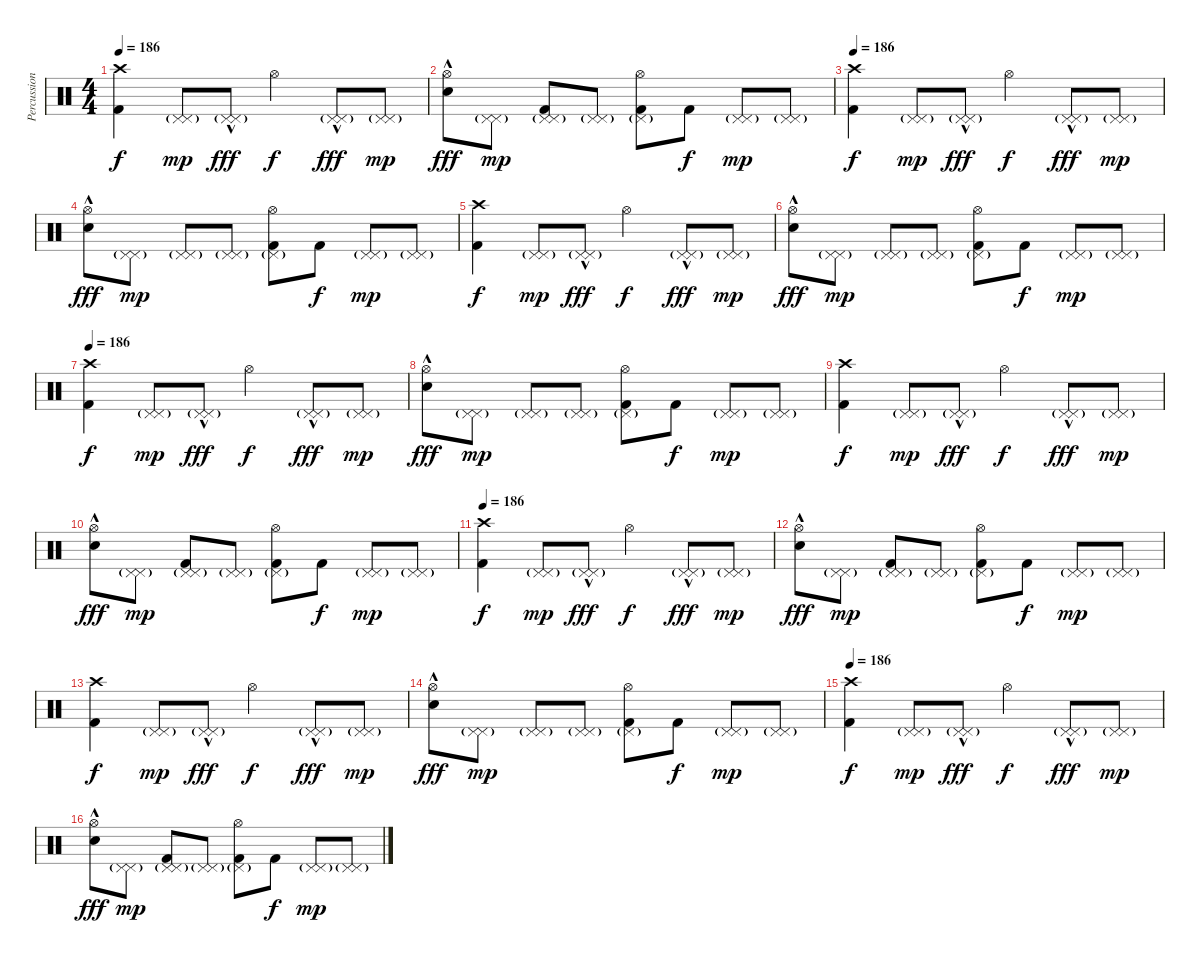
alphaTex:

\track ("Percussion" "Percussion") {instrument percussion}
\staff {score}
\articulation defaults
\ts (4 4)
\tempo 186
\clef neutral
\ks c
("Crash high (hit)" "Kick (hit) 2").4{dy f} ("Pedal Hi-Hat (hit)"{g} "Pedal Hi-Hat (hit)").8{dy mp} ("Pedal Hi-Hat (hit)"{g} "Pedal Hi-Hat (hit)"{hac}).8{dy fff} "Hi-Hat (open)".4{dy f} ("Pedal Hi-Hat (hit)"{g} "Pedal Hi-Hat (hit)"{hac}).8{dy fff} ("Pedal Hi-Hat (hit)"{g} "Pedal Hi-Hat (hit)").8{dy mp} |
("Hi-Hat (open)" "Electric Snare (hit)"{hac}).8{dy fff} ("Pedal Hi-Hat (hit)"{g} "Pedal Hi-Hat (hit)").8{dy mp} ("Pedal Hi-Hat (hit)"{g} "Pedal Hi-Hat (hit)" "Kick (hit) 2").8 ("Pedal Hi-Hat (hit)"{g} "Pedal Hi-Hat (hit)").8 ("Pedal Hi-Hat (hit)"{g} "Hi-Hat (open)" "Kick (hit) 2").8 "Kick (hit) 2".8{dy f} ("Pedal Hi-Hat (hit)"{g} "Pedal Hi-Hat (hit)").8{dy mp} ("Pedal Hi-Hat (hit)"{g} "Pedal Hi-Hat (hit)").8 |
\tempo 186
("Crash high (hit)" "Kick (hit) 2").4{dy f} ("Pedal Hi-Hat (hit)"{g} "Pedal Hi-Hat (hit)").8{dy mp} ("Pedal Hi-Hat (hit)"{g} "Pedal Hi-Hat (hit)"{hac}).8{dy fff} "Hi-Hat (open)".4{dy f} ("Pedal Hi-Hat (hit)"{g} "Pedal Hi-Hat (hit)"{hac}).8{dy fff} ("Pedal Hi-Hat (hit)"{g} "Pedal Hi-Hat (hit)").8{dy mp} |
("Hi-Hat (open)" "Electric Snare (hit)"{hac}).8{dy fff} ("Pedal Hi-Hat (hit)"{g} "Pedal Hi-Hat (hit)").8{dy mp} ("Pedal Hi-Hat (hit)"{g} "Pedal Hi-Hat (hit)").8 ("Pedal Hi-Hat (hit)"{g} "Pedal Hi-Hat (hit)").8 ("Pedal Hi-Hat (hit)"{g} "Hi-Hat (open)" "Kick (hit) 2").8 "Kick (hit) 2".8{dy f} ("Pedal Hi-Hat (hit)"{g} "Pedal Hi-Hat (hit)").8{dy mp} ("Pedal Hi-Hat (hit)"{g} "Pedal Hi-Hat (hit)").8 |
("Crash high (hit)" "Kick (hit) 2").4{dy f} ("Pedal Hi-Hat (hit)"{g} "Pedal Hi-Hat (hit)").8{dy mp} ("Pedal Hi-Hat (hit)"{g} "Pedal Hi-Hat (hit)"{hac}).8{dy fff} "Hi-Hat (open)".4{dy f} ("Pedal Hi-Hat (hit)"{g} "Pedal Hi-Hat (hit)"{hac}).8{dy fff} ("Pedal Hi-Hat (hit)"{g} "Pedal Hi-Hat (hit)").8{dy mp} |
("Hi-Hat (open)" "Electric Snare (hit)"{hac}).8{dy fff} ("Pedal Hi-Hat (hit)"{g} "Pedal Hi-Hat (hit)").8{dy mp} ("Pedal Hi-Hat (hit)"{g} "Pedal Hi-Hat (hit)").8 ("Pedal Hi-Hat (hit)"{g} "Pedal Hi-Hat (hit)").8 ("Pedal Hi-Hat (hit)"{g} "Hi-Hat (open)" "Kick (hit) 2").8 "Kick (hit) 2".8{dy f} ("Pedal Hi-Hat (hit)"{g} "Pedal Hi-Hat (hit)").8{dy mp} ("Pedal Hi-Hat (hit)"{g} "Pedal Hi-Hat (hit)").8 |
\tempo 186
("Crash high (hit)" "Kick (hit) 2").4{dy f} ("Pedal Hi-Hat (hit)"{g} "Pedal Hi-Hat (hit)").8{dy mp} ("Pedal Hi-Hat (hit)"{g} "Pedal Hi-Hat (hit)"{hac}).8{dy fff} "Hi-Hat (open)".4{dy f} ("Pedal Hi-Hat (hit)"{g} "Pedal Hi-Hat (hit)"{hac}).8{dy fff} ("Pedal Hi-Hat (hit)"{g} "Pedal Hi-Hat (hit)").8{dy mp} |
("Hi-Hat (open)" "Electric Snare (hit)"{hac}).8{dy fff} ("Pedal Hi-Hat (hit)"{g} "Pedal Hi-Hat (hit)").8{dy mp} ("Pedal Hi-Hat (hit)"{g} "Pedal Hi-Hat (hit)").8 ("Pedal Hi-Hat (hit)"{g} "Pedal Hi-Hat (hit)").8 ("Pedal Hi-Hat (hit)"{g} "Hi-Hat (open)" "Kick (hit) 2").8 "Kick (hit) 2".8{dy f} ("Pedal Hi-Hat (hit)"{g} "Pedal Hi-Hat (hit)").8{dy mp} ("Pedal Hi-Hat (hit)"{g} "Pedal Hi-Hat (hit)").8 |
("Crash high (hit)" "Kick (hit) 2").4{dy f} ("Pedal Hi-Hat (hit)"{g} "Pedal Hi-Hat (hit)").8{dy mp} ("Pedal Hi-Hat (hit)"{g} "Pedal Hi-Hat (hit)"{hac}).8{dy fff} "Hi-Hat (open)".4{dy f} ("Pedal Hi-Hat (hit)"{g} "Pedal Hi-Hat (hit)"{hac}).8{dy fff} ("Pedal Hi-Hat (hit)"{g} "Pedal Hi-Hat (hit)").8{dy mp} |
("Hi-Hat (open)" "Electric Snare (hit)"{hac}).8{dy fff} ("Pedal Hi-Hat (hit)"{g} "Pedal Hi-Hat (hit)").8{dy mp} ("Pedal Hi-Hat (hit)"{g} "Pedal Hi-Hat (hit)" "Kick (hit) 2").8 ("Pedal Hi-Hat (hit)"{g} "Pedal Hi-Hat (hit)").8 ("Pedal Hi-Hat (hit)"{g} "Hi-Hat (open)" "Kick (hit) 2").8 "Kick (hit) 2".8{dy f} ("Pedal Hi-Hat (hit)"{g} "Pedal Hi-Hat (hit)").8{dy mp} ("Pedal Hi-Hat (hit)"{g} "Pedal Hi-Hat (hit)").8 |
\tempo 186
("Crash high (hit)" "Kick (hit) 2").4{dy f} ("Pedal Hi-Hat (hit)"{g} "Pedal Hi-Hat (hit)").8{dy mp} ("Pedal Hi-Hat (hit)"{g} "Pedal Hi-Hat (hit)"{hac}).8{dy fff} "Hi-Hat (open)".4{dy f} ("Pedal Hi-Hat (hit)"{g} "Pedal Hi-Hat (hit)"{hac}).8{dy fff} ("Pedal Hi-Hat (hit)"{g} "Pedal Hi-Hat (hit)").8{dy mp} |
("Hi-Hat (open)" "Electric Snare (hit)"{hac}).8{dy fff} ("Pedal Hi-Hat (hit)"{g} "Pedal Hi-Hat (hit)").8{dy mp} ("Pedal Hi-Hat (hit)"{g} "Pedal Hi-Hat (hit)" "Kick (hit) 2").8 ("Pedal Hi-Hat (hit)"{g} "Pedal Hi-Hat (hit)").8 ("Pedal Hi-Hat (hit)"{g} "Hi-Hat (open)" "Kick (hit) 2").8 "Kick (hit) 2".8{dy f} ("Pedal Hi-Hat (hit)"{g} "Pedal Hi-Hat (hit)").8{dy mp} ("Pedal Hi-Hat (hit)"{g} "Pedal Hi-Hat (hit)").8 |
("Crash high (hit)" "Kick (hit) 2").4{dy f} ("Pedal Hi-Hat (hit)"{g} "Pedal Hi-Hat (hit)").8{dy mp} ("Pedal Hi-Hat (hit)"{g} "Pedal Hi-Hat (hit)"{hac}).8{dy fff} "Hi-Hat (open)".4{dy f} ("Pedal Hi-Hat (hit)"{g} "Pedal Hi-Hat (hit)"{hac}).8{dy fff} ("Pedal Hi-Hat (hit)"{g} "Pedal Hi-Hat (hit)").8{dy mp} |
("Hi-Hat (open)" "Electric Snare (hit)"{hac}).8{dy fff} ("Pedal Hi-Hat (hit)"{g} "Pedal Hi-Hat (hit)").8{dy mp} ("Pedal Hi-Hat (hit)"{g} "Pedal Hi-Hat (hit)").8 ("Pedal Hi-Hat (hit)"{g} "Pedal Hi-Hat (hit)").8 ("Pedal Hi-Hat (hit)"{g} "Hi-Hat (open)" "Kick (hit) 2").8 "Kick (hit) 2".8{dy f} ("Pedal Hi-Hat (hit)"{g} "Pedal Hi-Hat (hit)").8{dy mp} ("Pedal Hi-Hat (hit)"{g} "Pedal Hi-Hat (hit)").8 |
\tempo 186
("Crash high (hit)" "Kick (hit) 2").4{dy f} ("Pedal Hi-Hat (hit)"{g} "Pedal Hi-Hat (hit)").8{dy mp} ("Pedal Hi-Hat (hit)"{g} "Pedal Hi-Hat (hit)"{hac}).8{dy fff} "Hi-Hat (open)".4{dy f} ("Pedal Hi-Hat (hit)"{g} "Pedal Hi-Hat (hit)"{hac}).8{dy fff} ("Pedal Hi-Hat (hit)"{g} "Pedal Hi-Hat (hit)").8{dy mp} |
("Hi-Hat (open)" "Electric Snare (hit)"{hac}).8{dy fff} ("Pedal Hi-Hat (hit)"{g} "Pedal Hi-Hat (hit)").8{dy mp} ("Pedal Hi-Hat (hit)"{g} "Pedal Hi-Hat (hit)" "Kick (hit) 2").8 ("Pedal Hi-Hat (hit)"{g} "Pedal Hi-Hat (hit)").8 ("Pedal Hi-Hat (hit)"{g} "Hi-Hat (open)" "Kick (hit) 2").8 "Kick (hit) 2".8{dy f} ("Pedal Hi-Hat (hit)"{g} "Pedal Hi-Hat (hit)").8{dy mp} ("Pedal Hi-Hat (hit)"{g} "Pedal Hi-Hat (hit)").8
